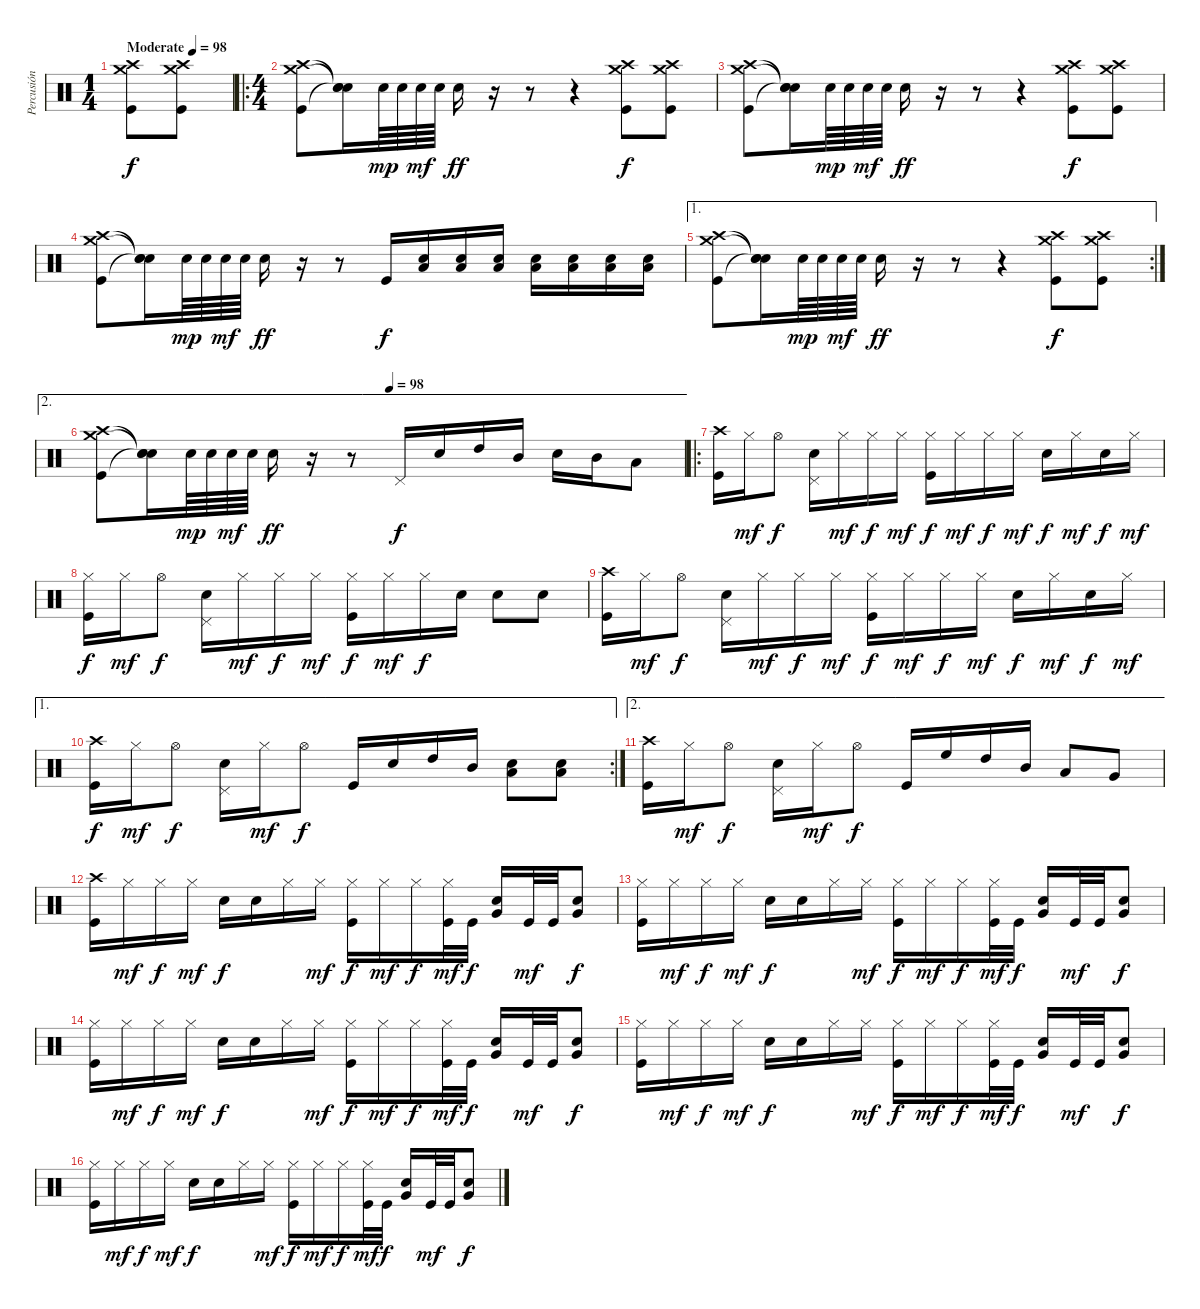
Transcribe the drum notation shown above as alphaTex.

\track ("Percusión" "Percusión") {instrument percussion}
\staff {score}
\articulation defaults
\ts (1 4)
\tempo (98 "Moderate")
\tempo 70
\tempo (98 "Moderate")
\clef neutral
\ks c
("Crash high (hit)" "Crash medium (hit)" "Kick (hit)").8{dy f} ("Crash high (hit)" "Crash medium (hit)" "Kick (hit)").8 |
\ro
\ts (4 4)
("Crash high (hit)" "Crash medium (hit)" "Kick (hit)").8 ("Snare (hit)"{t} "Snare (hit)"{t} "Snare (hit)"{t}).16 "Electric Snare (hit)".64{dy mp} "Electric Snare (hit)".64 "Electric Snare (hit)".64{dy mf} "Electric Snare (hit)".64 "Electric Snare (hit)".16{dy ff} r.16 r.8 r.4 ("Crash medium (hit)" "Crash high (hit)" "Kick (hit)").8{dy f} ("Crash high (hit)" "Crash medium (hit)" "Kick (hit)").8 |
("Crash high (hit)" "Crash medium (hit)" "Kick (hit)").8 ("Snare (hit)"{t} "Snare (hit)"{t} "Snare (hit)"{t}).16 "Electric Snare (hit)".64{dy mp} "Electric Snare (hit)".64 "Electric Snare (hit)".64{dy mf} "Electric Snare (hit)".64 "Electric Snare (hit)".16{dy ff} r.16 r.8 r.4 ("Crash medium (hit)" "Crash high (hit)" "Kick (hit)").8{dy f} ("Crash high (hit)" "Crash medium (hit)" "Kick (hit)").8 |
("Crash high (hit)" "Crash medium (hit)" "Kick (hit)").8 ("Snare (hit)"{t} "Snare (hit)"{t} "Snare (hit)"{t}).16 "Electric Snare (hit)".64{dy mp} "Electric Snare (hit)".64 "Electric Snare (hit)".64{dy mf} "Electric Snare (hit)".64 "Electric Snare (hit)".16{dy ff} r.16 r.8 "Kick (hit)".16{dy f} ("Electric Snare (hit)" "Low Floor Tom (hit)").16 ("Electric Snare (hit)" "Low Floor Tom (hit)").16 ("Electric Snare (hit)" "Low Floor Tom (hit)").16 ("Electric Snare (hit)" "Low Floor Tom (hit)").16 ("Electric Snare (hit)" "Low Floor Tom (hit)").16 ("Electric Snare (hit)" "Low Floor Tom (hit)").16 ("Electric Snare (hit)" "Low Floor Tom (hit)").16 |
\ae 1
\rc 2
("Crash high (hit)" "Crash medium (hit)" "Kick (hit)").8 ("Snare (hit)"{t} "Snare (hit)"{t} "Snare (hit)"{t}).16 "Electric Snare (hit)".64{dy mp} "Electric Snare (hit)".64 "Electric Snare (hit)".64{dy mf} "Electric Snare (hit)".64 "Electric Snare (hit)".16{dy ff} r.16 r.8 r.4 ("Crash medium (hit)" "Crash high (hit)" "Kick (hit)").8{dy f} ("Crash high (hit)" "Crash medium (hit)" "Kick (hit)").8 |
\ae 2
\tempo (98 0.5)
("Crash high (hit)" "Crash medium (hit)" "Kick (hit)").8 ("Snare (hit)"{t} "Snare (hit)"{t} "Snare (hit)"{t}).16 "Electric Snare (hit)".64{dy mp} "Electric Snare (hit)".64 "Electric Snare (hit)".64{dy mf} "Electric Snare (hit)".64 "Electric Snare (hit)".16{dy ff} r.16 r.8 "Pedal Hi-Hat (hit)".16{dy f} "Electric Snare (hit)".16 "High Tom (hit)".16 "Mid Tom (hit)".16 "Electric Snare (hit)".16 "Mid Tom (hit)".16 "Low Tom (hit)".8 |
\ro
("Crash high (hit)" "Kick (hit)").16 "Hi-Hat (closed)".16{dy mf} "Hi-Hat (open)".8{dy f} ("Electric Snare (hit)" "Pedal Hi-Hat (hit)").16 "Hi-Hat (closed)".16{dy mf} "Hi-Hat (closed)".16{dy f} "Hi-Hat (closed)".16{dy mf} ("Hi-Hat (closed)" "Kick (hit)").16{dy f} "Hi-Hat (closed)".16{dy mf} "Hi-Hat (closed)".16{dy f} "Hi-Hat (closed)".16{dy mf} "Electric Snare (hit)".16{dy f} "Hi-Hat (closed)".16{dy mf} "Electric Snare (hit)".16{dy f} "Hi-Hat (closed)".16{dy mf} |
("Hi-Hat (closed)" "Kick (hit)").16{dy f} "Hi-Hat (closed)".16{dy mf} "Hi-Hat (open)".8{dy f} ("Electric Snare (hit)" "Pedal Hi-Hat (hit)").16 "Hi-Hat (closed)".16{dy mf} "Hi-Hat (closed)".16{dy f} "Hi-Hat (closed)".16{dy mf} ("Hi-Hat (closed)" "Kick (hit)").16{dy f} "Hi-Hat (closed)".16{dy mf} "Hi-Hat (closed)".16{dy f} "Electric Snare (hit)".16 "Electric Snare (hit)".8 "Electric Snare (hit)".8 |
("Crash high (hit)" "Kick (hit)").16 "Hi-Hat (closed)".16{dy mf} "Hi-Hat (open)".8{dy f} ("Electric Snare (hit)" "Pedal Hi-Hat (hit)").16 "Hi-Hat (closed)".16{dy mf} "Hi-Hat (closed)".16{dy f} "Hi-Hat (closed)".16{dy mf} ("Hi-Hat (closed)" "Kick (hit)").16{dy f} "Hi-Hat (closed)".16{dy mf} "Hi-Hat (closed)".16{dy f} "Hi-Hat (closed)".16{dy mf} "Electric Snare (hit)".16{dy f} "Hi-Hat (closed)".16{dy mf} "Electric Snare (hit)".16{dy f} "Hi-Hat (closed)".16{dy mf} |
\ae 1
\rc 2
("Crash high (hit)" "Kick (hit)").16{dy f} "Hi-Hat (closed)".16{dy mf} "Hi-Hat (open)".8{dy f} ("Electric Snare (hit)" "Pedal Hi-Hat (hit)").16 "Hi-Hat (closed)".16{dy mf} "Hi-Hat (open)".8{dy f} "Kick (hit)".16 "Electric Snare (hit)".16 "High Tom (hit)".16 "Mid Tom (hit)".16 ("Electric Snare (hit)" "Low Floor Tom (hit)").8 ("Electric Snare (hit)" "Low Floor Tom (hit)").8 |
\ae 2
("Crash high (hit)" "Kick (hit)").16 "Hi-Hat (closed)".16{dy mf} "Hi-Hat (open)".8{dy f} ("Electric Snare (hit)" "Pedal Hi-Hat (hit)").16 "Hi-Hat (closed)".16{dy mf} "Hi-Hat (open)".8{dy f} "Kick (hit)".16 "High Floor Tom (hit)".16 "High Tom (hit)".16 "Mid Tom (hit)".16 "Low Tom (hit)".8 "Very Low Tom (hit)".8 |
("Crash high (hit)" "Kick (hit)").16 "Hi-Hat (closed)".16{dy mf} "Hi-Hat (closed)".16{dy f} "Hi-Hat (closed)".16{dy mf} "Electric Snare (hit)".16{dy f} "Electric Snare (hit)".16 "Hi-Hat (closed)".16 "Hi-Hat (closed)".16{dy mf} ("Hi-Hat (closed)" "Kick (hit)").16{dy f} "Hi-Hat (closed)".16{dy mf} "Hi-Hat (closed)".16{dy f} ("Hi-Hat (closed)" "Kick (hit)").32{dy mf} "Kick (hit)".32{dy f} ("Electric Snare (hit)" "Very Low Tom (hit)").16 "Kick (hit)".32{dy mf} "Kick (hit)".32 ("Electric Snare (hit)" "Very Low Tom (hit)").8{dy f} |
("Hi-Hat (closed)" "Kick (hit)").16 "Hi-Hat (closed)".16{dy mf} "Hi-Hat (closed)".16{dy f} "Hi-Hat (closed)".16{dy mf} "Electric Snare (hit)".16{dy f} "Electric Snare (hit)".16 "Hi-Hat (closed)".16 "Hi-Hat (closed)".16{dy mf} ("Hi-Hat (closed)" "Kick (hit)").16{dy f} "Hi-Hat (closed)".16{dy mf} "Hi-Hat (closed)".16{dy f} ("Hi-Hat (closed)" "Kick (hit)").32{dy mf} "Kick (hit)".32{dy f} ("Electric Snare (hit)" "Very Low Tom (hit)").16 "Kick (hit)".32{dy mf} "Kick (hit)".32 ("Electric Snare (hit)" "Very Low Tom (hit)").8{dy f} |
("Hi-Hat (closed)" "Kick (hit)").16 "Hi-Hat (closed)".16{dy mf} "Hi-Hat (closed)".16{dy f} "Hi-Hat (closed)".16{dy mf} "Electric Snare (hit)".16{dy f} "Electric Snare (hit)".16 "Hi-Hat (closed)".16 "Hi-Hat (closed)".16{dy mf} ("Hi-Hat (closed)" "Kick (hit)").16{dy f} "Hi-Hat (closed)".16{dy mf} "Hi-Hat (closed)".16{dy f} ("Hi-Hat (closed)" "Kick (hit)").32{dy mf} "Kick (hit)".32{dy f} ("Electric Snare (hit)" "Very Low Tom (hit)").16 "Kick (hit)".32{dy mf} "Kick (hit)".32 ("Electric Snare (hit)" "Very Low Tom (hit)").8{dy f} |
("Hi-Hat (closed)" "Kick (hit)").16 "Hi-Hat (closed)".16{dy mf} "Hi-Hat (closed)".16{dy f} "Hi-Hat (closed)".16{dy mf} "Electric Snare (hit)".16{dy f} "Electric Snare (hit)".16 "Hi-Hat (closed)".16 "Hi-Hat (closed)".16{dy mf} ("Hi-Hat (closed)" "Kick (hit)").16{dy f} "Hi-Hat (closed)".16{dy mf} "Hi-Hat (closed)".16{dy f} ("Hi-Hat (closed)" "Kick (hit)").32{dy mf} "Kick (hit)".32{dy f} ("Electric Snare (hit)" "Very Low Tom (hit)").16 "Kick (hit)".32{dy mf} "Kick (hit)".32 ("Electric Snare (hit)" "Very Low Tom (hit)").8{dy f} |
("Hi-Hat (closed)" "Kick (hit)").16 "Hi-Hat (closed)".16{dy mf} "Hi-Hat (closed)".16{dy f} "Hi-Hat (closed)".16{dy mf} "Electric Snare (hit)".16{dy f} "Electric Snare (hit)".16 "Hi-Hat (closed)".16 "Hi-Hat (closed)".16{dy mf} ("Hi-Hat (closed)" "Kick (hit)").16{dy f} "Hi-Hat (closed)".16{dy mf} "Hi-Hat (closed)".16{dy f} ("Hi-Hat (closed)" "Kick (hit)").32{dy mf} "Kick (hit)".32{dy f} ("Electric Snare (hit)" "Very Low Tom (hit)").16 "Kick (hit)".32{dy mf} "Kick (hit)".32 ("Electric Snare (hit)" "Very Low Tom (hit)").8{dy f}
